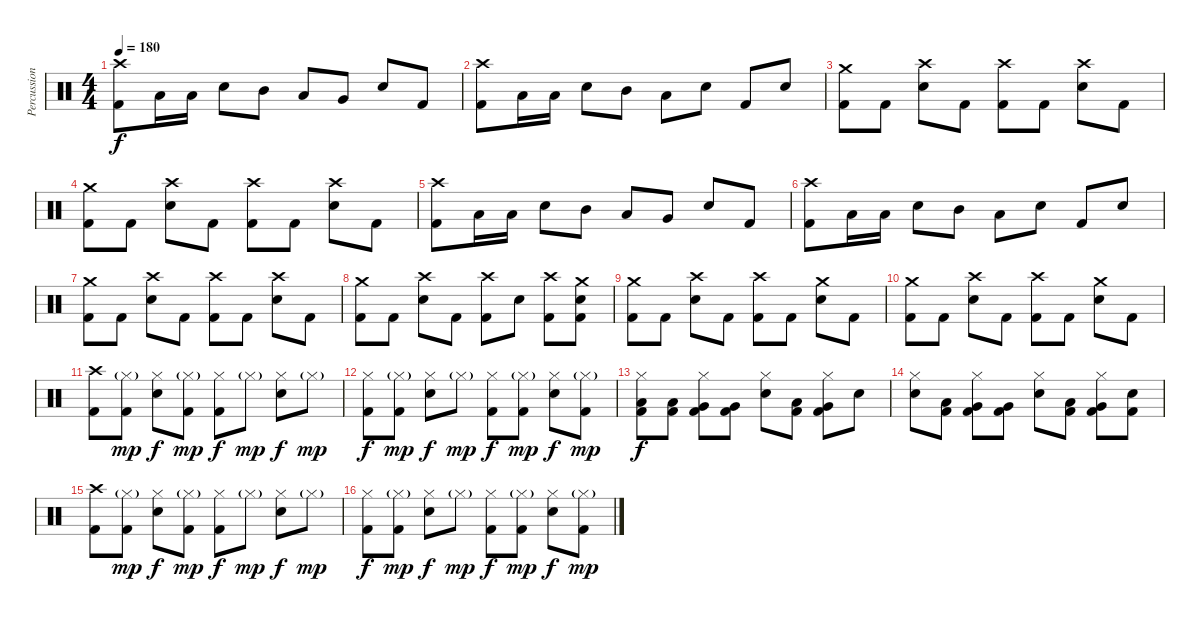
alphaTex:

\track ("Percussion" "Percussion") {instrument percussion}
\staff {score}
\articulation defaults
\ts (4 4)
\tempo 180
\clef neutral
\ks c
("Crash high (hit)" "Kick (hit) 2").8{dy f} "Low Tom (hit)".16 "Low Tom (hit)".16 "Electric Snare (hit)".8 "Mid Tom (hit)".8 "Low Tom (hit)".8 "Very Low Tom (hit)".8 "Electric Snare (hit)".8 "Kick (hit) 2".8 |
("Crash high (hit)" "Kick (hit) 2").8 "Low Tom (hit)".16 "Low Tom (hit)".16 "Electric Snare (hit)".8 "Mid Tom (hit)".8 "Low Tom (hit)".8 "Electric Snare (hit)".8 "Kick (hit) 2".8 "Electric Snare (hit)".8 |
("Crash medium (hit)" "Kick (hit) 2").8 "Kick (hit) 2".8 ("Crash high (hit)" "Electric Snare (hit)").8 "Kick (hit) 2".8 ("Crash high (hit)" "Kick (hit) 2").8 "Kick (hit) 2".8 ("Crash high (hit)" "Electric Snare (hit)").8 "Kick (hit) 2".8 |
("Crash medium (hit)" "Kick (hit) 2").8 "Kick (hit) 2".8 ("Crash high (hit)" "Electric Snare (hit)").8 "Kick (hit) 2".8 ("Crash high (hit)" "Kick (hit) 2").8 "Kick (hit) 2".8 ("Crash high (hit)" "Electric Snare (hit)").8 "Kick (hit) 2".8 |
("Crash high (hit)" "Kick (hit) 2").8 "Low Tom (hit)".16 "Low Tom (hit)".16 "Electric Snare (hit)".8 "Mid Tom (hit)".8 "Low Tom (hit)".8 "Very Low Tom (hit)".8 "Electric Snare (hit)".8 "Kick (hit) 2".8 |
("Crash high (hit)" "Kick (hit) 2").8 "Low Tom (hit)".16 "Low Tom (hit)".16 "Electric Snare (hit)".8 "Mid Tom (hit)".8 "Low Tom (hit)".8 "Electric Snare (hit)".8 "Kick (hit) 2".8 "Electric Snare (hit)".8 |
("Crash medium (hit)" "Kick (hit) 2").8 "Kick (hit) 2".8 ("Crash high (hit)" "Electric Snare (hit)").8 "Kick (hit) 2".8 ("Crash high (hit)" "Kick (hit) 2").8 "Kick (hit) 2".8 ("Crash high (hit)" "Electric Snare (hit)").8 "Kick (hit) 2".8 |
("Crash medium (hit)" "Kick (hit) 2").8 "Kick (hit) 2".8 ("Crash high (hit)" "Electric Snare (hit)").8 "Kick (hit) 2".8 ("Crash high (hit)" "Kick (hit) 2").8 "Electric Snare (hit)".8 ("Crash high (hit)" "Kick (hit) 2").8 ("Crash medium (hit)" "Electric Snare (hit)" "Kick (hit) 2").8 |
("Crash medium (hit)" "Kick (hit) 2").8 "Kick (hit) 2".8 ("Crash high (hit)" "Electric Snare (hit)").8 "Kick (hit) 2".8 ("Crash high (hit)" "Kick (hit) 2").8 "Kick (hit) 2".8 ("Crash medium (hit)" "Electric Snare (hit)").8 "Kick (hit) 2".8 |
("Crash medium (hit)" "Kick (hit) 2").8 "Kick (hit) 2".8 ("Crash high (hit)" "Electric Snare (hit)").8 "Kick (hit) 2".8 ("Crash high (hit)" "Kick (hit) 2").8 "Kick (hit) 2".8 ("Crash medium (hit)" "Electric Snare (hit)").8 "Kick (hit) 2".8 |
("Crash high (hit)" "Kick (hit) 2").8 ("Hi-Hat (closed)"{g} "Kick (hit) 2").8{dy mp} ("Hi-Hat (closed)" "Electric Snare (hit)").8{dy f} ("Hi-Hat (closed)"{g} "Kick (hit) 2").8{dy mp} ("Hi-Hat (closed)" "Kick (hit) 2").8{dy f} "Hi-Hat (closed)"{g}.8{dy mp} ("Hi-Hat (closed)" "Electric Snare (hit)").8{dy f} "Hi-Hat (closed)"{g}.8{dy mp} |
("Hi-Hat (closed)" "Kick (hit) 2").8{dy f} ("Hi-Hat (closed)"{g} "Kick (hit) 2").8{dy mp} ("Hi-Hat (closed)" "Electric Snare (hit)").8{dy f} "Hi-Hat (closed)"{g}.8{dy mp} ("Hi-Hat (closed)" "Kick (hit) 2").8{dy f} ("Hi-Hat (closed)"{g} "Kick (hit) 2").8{dy mp} ("Hi-Hat (closed)" "Electric Snare (hit)").8{dy f} ("Hi-Hat (closed)"{g} "Kick (hit) 2").8{dy mp} |
("Hi-Hat (closed)" "Low Tom (hit)" "Kick (hit) 2").8{dy f} ("Low Tom (hit)" "Kick (hit) 2").8 ("Hi-Hat (closed)" "Very Low Tom (hit)" "Kick (hit) 2").8 ("Very Low Tom (hit)" "Kick (hit) 2").8 ("Hi-Hat (closed)" "Electric Snare (hit)").8 ("Low Tom (hit)" "Kick (hit) 2").8 ("Hi-Hat (closed)" "Very Low Tom (hit)" "Kick (hit) 2").8 "Electric Snare (hit)".8 |
("Hi-Hat (closed)" "Electric Snare (hit)").8 ("Low Tom (hit)" "Kick (hit) 2").8 ("Hi-Hat (closed)" "Very Low Tom (hit)" "Kick (hit) 2").8 ("Very Low Tom (hit)" "Kick (hit) 2").8 ("Hi-Hat (closed)" "Electric Snare (hit)").8 ("Low Tom (hit)" "Kick (hit) 2").8 ("Hi-Hat (closed)" "Very Low Tom (hit)" "Kick (hit) 2").8 ("Electric Snare (hit)" "Kick (hit) 2").8 |
("Crash high (hit)" "Kick (hit) 2").8 ("Hi-Hat (closed)"{g} "Kick (hit) 2").8{dy mp} ("Hi-Hat (closed)" "Electric Snare (hit)").8{dy f} ("Hi-Hat (closed)"{g} "Kick (hit) 2").8{dy mp} ("Hi-Hat (closed)" "Kick (hit) 2").8{dy f} "Hi-Hat (closed)"{g}.8{dy mp} ("Hi-Hat (closed)" "Electric Snare (hit)").8{dy f} "Hi-Hat (closed)"{g}.8{dy mp} |
("Hi-Hat (closed)" "Kick (hit) 2").8{dy f} ("Hi-Hat (closed)"{g} "Kick (hit) 2").8{dy mp} ("Hi-Hat (closed)" "Electric Snare (hit)").8{dy f} "Hi-Hat (closed)"{g}.8{dy mp} ("Hi-Hat (closed)" "Kick (hit) 2").8{dy f} ("Hi-Hat (closed)"{g} "Kick (hit) 2").8{dy mp} ("Hi-Hat (closed)" "Electric Snare (hit)").8{dy f} ("Hi-Hat (closed)"{g} "Kick (hit) 2").8{dy mp}
